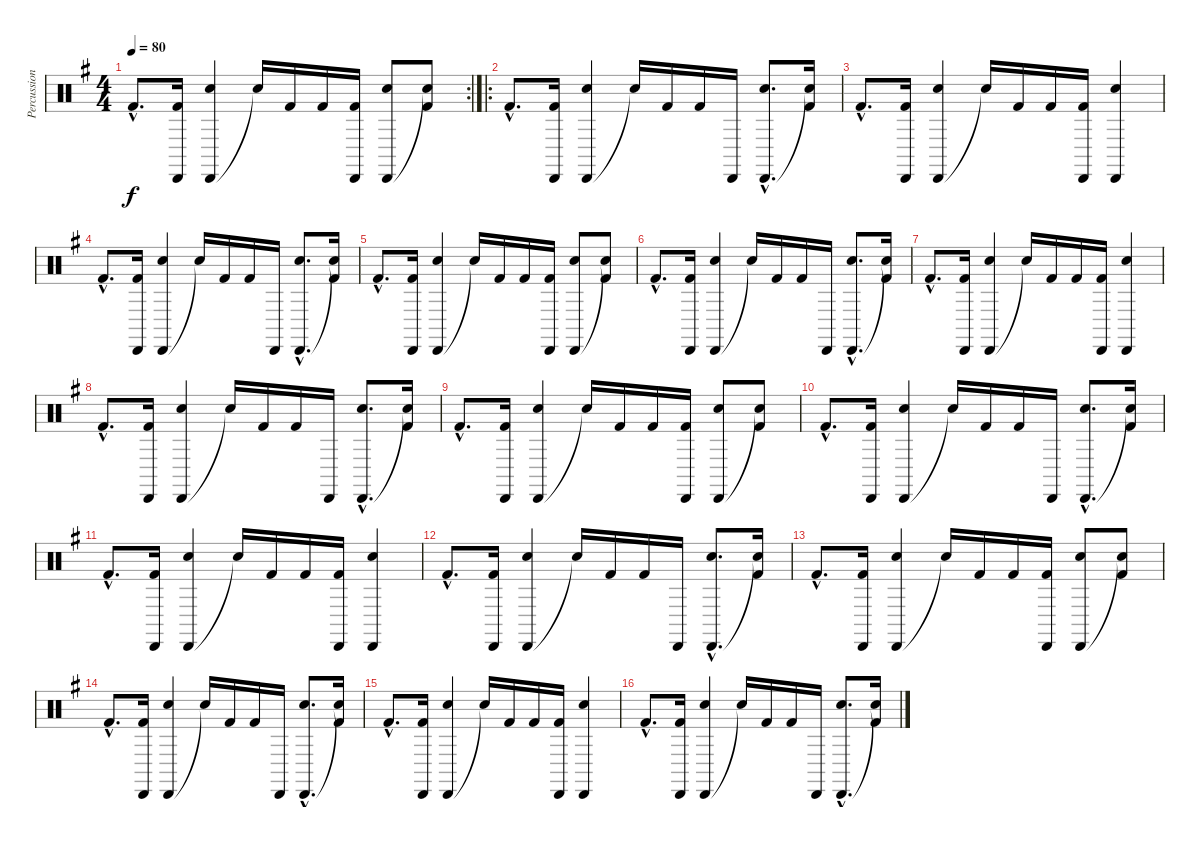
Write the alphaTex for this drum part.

\track ("Percussions" "Percussion") {instrument percussion}
\staff {score}
\articulation defaults
\rc 2
\ts (4 4)
\tempo 80
\clef neutral
\ks g "Kick (hit) 2"{hac}.8{d dy f}
("Cabasa (hit)" "Kick (hit) 2").16 ("Cabasa (hit)" "Electric Snare (hit)").4 "Snare (hit)"{t}.16 "Kick (hit) 2".16 "Kick (hit) 2".16 ("Cabasa (hit)" "Kick (hit) 2").16 ("Cabasa (hit)" "Electric Snare (hit)").8 ("Snare (hit)"{t} "Kick (hit) 2").8 |
\ro "Kick (hit) 2"{hac}.8{d}
("Cabasa (hit)" "Kick (hit) 2").16 ("Cabasa (hit)" "Electric Snare (hit)").4 "Snare (hit)"{t}.16 "Kick (hit) 2".16 "Kick (hit) 2".16 "Cabasa (hit)".16 ("Cabasa (hit)"{hac} "Electric Snare (hit)"{hac}).8{d} ("Snare (hit)"{t} "Kick (hit) 2").16 |
"Kick (hit) 2"{hac}.8{d} ("Cabasa (hit)" "Kick (hit) 2").16 ("Cabasa (hit)" "Electric Snare (hit)").4 "Snare (hit)"{t}.16 "Kick (hit) 2".16 "Kick (hit) 2".16 ("Cabasa (hit)" "Kick (hit) 2").16 ("Cabasa (hit)" "Electric Snare (hit)").4 |
"Kick (hit) 2"{hac}.8{d} ("Cabasa (hit)" "Kick (hit) 2").16 ("Cabasa (hit)" "Electric Snare (hit)").4 "Snare (hit)"{t}.16 "Kick (hit) 2".16 "Kick (hit) 2".16 "Cabasa (hit)".16 ("Cabasa (hit)"{hac} "Electric Snare (hit)"{hac}).8{d} ("Snare (hit)"{t} "Kick (hit) 2").16 |
"Kick (hit) 2"{hac}.8{d} ("Cabasa (hit)" "Kick (hit) 2").16 ("Cabasa (hit)" "Electric Snare (hit)").4 "Snare (hit)"{t}.16 "Kick (hit) 2".16 "Kick (hit) 2".16 ("Cabasa (hit)" "Kick (hit) 2").16 ("Cabasa (hit)" "Electric Snare (hit)").8 ("Snare (hit)"{t} "Kick (hit) 2").8 |
"Kick (hit) 2"{hac}.8{d} ("Cabasa (hit)" "Kick (hit) 2").16 ("Cabasa (hit)" "Electric Snare (hit)").4 "Snare (hit)"{t}.16 "Kick (hit) 2".16 "Kick (hit) 2".16 "Cabasa (hit)".16 ("Cabasa (hit)"{hac} "Electric Snare (hit)"{hac}).8{d} ("Snare (hit)"{t} "Kick (hit) 2").16 |
"Kick (hit) 2"{hac}.8{d} ("Cabasa (hit)" "Kick (hit) 2").16 ("Cabasa (hit)" "Electric Snare (hit)").4 "Snare (hit)"{t}.16 "Kick (hit) 2".16 "Kick (hit) 2".16 ("Cabasa (hit)" "Kick (hit) 2").16 ("Cabasa (hit)" "Electric Snare (hit)").4 |
"Kick (hit) 2"{hac}.8{d} ("Cabasa (hit)" "Kick (hit) 2").16 ("Cabasa (hit)" "Electric Snare (hit)").4 "Snare (hit)"{t}.16 "Kick (hit) 2".16 "Kick (hit) 2".16 "Cabasa (hit)".16 ("Cabasa (hit)"{hac} "Electric Snare (hit)"{hac}).8{d} ("Snare (hit)"{t} "Kick (hit) 2").16 |
"Kick (hit) 2"{hac}.8{d} ("Cabasa (hit)" "Kick (hit) 2").16 ("Cabasa (hit)" "Electric Snare (hit)").4 "Snare (hit)"{t}.16 "Kick (hit) 2".16 "Kick (hit) 2".16 ("Cabasa (hit)" "Kick (hit) 2").16 ("Cabasa (hit)" "Electric Snare (hit)").8 ("Snare (hit)"{t} "Kick (hit) 2").8 |
"Kick (hit) 2"{hac}.8{d} ("Cabasa (hit)" "Kick (hit) 2").16 ("Cabasa (hit)" "Electric Snare (hit)").4 "Snare (hit)"{t}.16 "Kick (hit) 2".16 "Kick (hit) 2".16 "Cabasa (hit)".16 ("Cabasa (hit)"{hac} "Electric Snare (hit)"{hac}).8{d} ("Snare (hit)"{t} "Kick (hit) 2").16 |
"Kick (hit) 2"{hac}.8{d} ("Cabasa (hit)" "Kick (hit) 2").16 ("Cabasa (hit)" "Electric Snare (hit)").4 "Snare (hit)"{t}.16 "Kick (hit) 2".16 "Kick (hit) 2".16 ("Cabasa (hit)" "Kick (hit) 2").16 ("Cabasa (hit)" "Electric Snare (hit)").4 |
"Kick (hit) 2"{hac}.8{d} ("Cabasa (hit)" "Kick (hit) 2").16 ("Cabasa (hit)" "Electric Snare (hit)").4 "Snare (hit)"{t}.16 "Kick (hit) 2".16 "Kick (hit) 2".16 "Cabasa (hit)".16 ("Cabasa (hit)"{hac} "Electric Snare (hit)"{hac}).8{d} ("Snare (hit)"{t} "Kick (hit) 2").16 |
"Kick (hit) 2"{hac}.8{d} ("Cabasa (hit)" "Kick (hit) 2").16 ("Cabasa (hit)" "Electric Snare (hit)").4 "Snare (hit)"{t}.16 "Kick (hit) 2".16 "Kick (hit) 2".16 ("Cabasa (hit)" "Kick (hit) 2").16 ("Cabasa (hit)" "Electric Snare (hit)").8 ("Snare (hit)"{t} "Kick (hit) 2").8 |
"Kick (hit) 2"{hac}.8{d} ("Cabasa (hit)" "Kick (hit) 2").16 ("Cabasa (hit)" "Electric Snare (hit)").4 "Snare (hit)"{t}.16 "Kick (hit) 2".16 "Kick (hit) 2".16 "Cabasa (hit)".16 ("Cabasa (hit)"{hac} "Electric Snare (hit)"{hac}).8{d} ("Snare (hit)"{t} "Kick (hit) 2").16 |
"Kick (hit) 2"{hac}.8{d} ("Cabasa (hit)" "Kick (hit) 2").16 ("Cabasa (hit)" "Electric Snare (hit)").4 "Snare (hit)"{t}.16 "Kick (hit) 2".16 "Kick (hit) 2".16 ("Cabasa (hit)" "Kick (hit) 2").16 ("Cabasa (hit)" "Electric Snare (hit)").4 |
"Kick (hit) 2"{hac}.8{d} ("Cabasa (hit)" "Kick (hit) 2").16 ("Cabasa (hit)" "Electric Snare (hit)").4 "Snare (hit)"{t}.16 "Kick (hit) 2".16 "Kick (hit) 2".16 "Cabasa (hit)".16 ("Cabasa (hit)"{hac} "Electric Snare (hit)"{hac}).8{d} ("Snare (hit)"{t} "Kick (hit) 2").16
